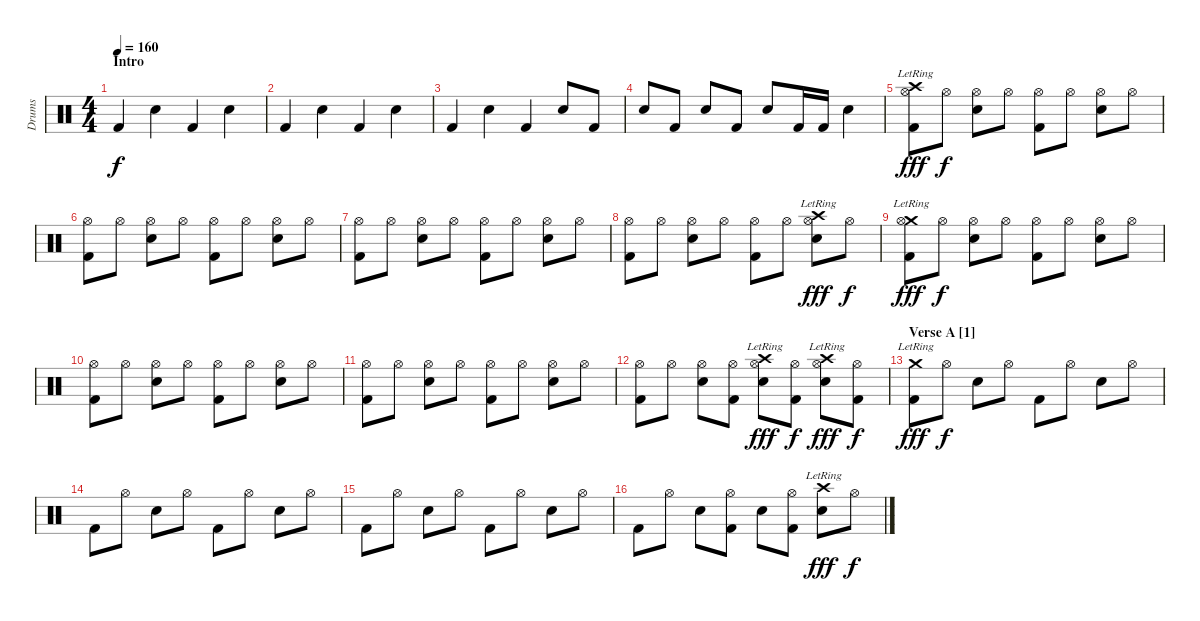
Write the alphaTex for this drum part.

\track ("Drums" "Drums") {instrument percussion}
\staff {score}
\articulation defaults
\ts (4 4)
\section ("" "Intro")
\tempo 160
\clef neutral
\ks c "Kick (hit) 2".4{dy f} "Electric Snare (hit)".4 "Kick (hit) 2".4 "Electric Snare (hit)".4
|
"Kick (hit) 2".4 "Electric Snare (hit)".4 "Kick (hit) 2".4 "Electric Snare (hit)".4 |
"Kick (hit) 2".4 "Electric Snare (hit)".4 "Kick (hit) 2".4 "Electric Snare (hit)".8 "Kick (hit) 2".8 |
"Electric Snare (hit)".8 "Kick (hit) 2".8 "Electric Snare (hit)".8 "Kick (hit) 2".8 "Electric Snare (hit)".8 "Kick (hit) 2".16 "Kick (hit) 2".16 "Electric Snare (hit)".4 |
("Crash high (hit)"{lr} "Hi-Hat (open)" "Kick (hit) 2").8{dy fff} "Hi-Hat (open)".8{dy f} ("Hi-Hat (open)" "Electric Snare (hit)").8 "Hi-Hat (open)".8 ("Hi-Hat (open)" "Kick (hit) 2").8 "Hi-Hat (open)".8 ("Hi-Hat (open)" "Electric Snare (hit)").8 "Hi-Hat (open)".8 |
("Hi-Hat (open)" "Kick (hit) 2").8 "Hi-Hat (open)".8 ("Hi-Hat (open)" "Electric Snare (hit)").8 "Hi-Hat (open)".8 ("Hi-Hat (open)" "Kick (hit) 2").8 "Hi-Hat (open)".8 ("Hi-Hat (open)" "Electric Snare (hit)").8 "Hi-Hat (open)".8 |
("Hi-Hat (open)" "Kick (hit) 2").8 "Hi-Hat (open)".8 ("Hi-Hat (open)" "Electric Snare (hit)").8 "Hi-Hat (open)".8 ("Hi-Hat (open)" "Kick (hit) 2").8 "Hi-Hat (open)".8 ("Hi-Hat (open)" "Electric Snare (hit)").8 "Hi-Hat (open)".8 |
("Hi-Hat (open)" "Kick (hit) 2").8 "Hi-Hat (open)".8 ("Hi-Hat (open)" "Electric Snare (hit)").8 "Hi-Hat (open)".8 ("Hi-Hat (open)" "Kick (hit) 2").8 "Hi-Hat (open)".8 ("Crash high (hit)"{lr} "Hi-Hat (open)" "Electric Snare (hit)").8{dy fff} "Hi-Hat (open)".8{dy f} |
("Crash medium (hit)"{lr} "Hi-Hat (open)" "Kick (hit) 2").8{dy fff} "Hi-Hat (open)".8{dy f} ("Hi-Hat (open)" "Electric Snare (hit)").8 "Hi-Hat (open)".8 ("Hi-Hat (open)" "Kick (hit) 2").8 "Hi-Hat (open)".8 ("Hi-Hat (open)" "Electric Snare (hit)").8 "Hi-Hat (open)".8 |
("Hi-Hat (open)" "Kick (hit) 2").8 "Hi-Hat (open)".8 ("Hi-Hat (open)" "Electric Snare (hit)").8 "Hi-Hat (open)".8 ("Hi-Hat (open)" "Kick (hit) 2").8 "Hi-Hat (open)".8 ("Hi-Hat (open)" "Electric Snare (hit)").8 "Hi-Hat (open)".8 |
("Hi-Hat (open)" "Kick (hit) 2").8 "Hi-Hat (open)".8 ("Hi-Hat (open)" "Electric Snare (hit)").8 "Hi-Hat (open)".8 ("Hi-Hat (open)" "Kick (hit) 2").8 "Hi-Hat (open)".8 ("Hi-Hat (open)" "Electric Snare (hit)").8 "Hi-Hat (open)".8 |
("Hi-Hat (open)" "Kick (hit) 2").8 "Hi-Hat (open)".8 ("Hi-Hat (open)" "Electric Snare (hit)").8 ("Hi-Hat (open)" "Kick (hit) 2").8 ("Crash high (hit)"{lr} "Hi-Hat (open)" "Electric Snare (hit)").8{dy fff} ("Hi-Hat (open)" "Kick (hit) 2").8{dy f} ("Crash high (hit)"{lr} "Hi-Hat (open)" "Electric Snare (hit)").8{dy fff} ("Hi-Hat (open)" "Kick (hit) 2").8{dy f} |
\section ("" "Verse A [1]")
("Crash medium (hit)"{lr} "Kick (hit) 2").8{dy fff} "Hi-Hat (open)".8{dy f} "Electric Snare (hit)".8 "Hi-Hat (open)".8 "Kick (hit) 2".8 "Hi-Hat (open)".8 "Electric Snare (hit)".8 "Hi-Hat (open)".8 |
"Kick (hit) 2".8 "Hi-Hat (open)".8 "Electric Snare (hit)".8 "Hi-Hat (open)".8 "Kick (hit) 2".8 "Hi-Hat (open)".8 "Electric Snare (hit)".8 "Hi-Hat (open)".8 |
"Kick (hit) 2".8 "Hi-Hat (open)".8 "Electric Snare (hit)".8 "Hi-Hat (open)".8 "Kick (hit) 2".8 "Hi-Hat (open)".8 "Electric Snare (hit)".8 "Hi-Hat (open)".8 |
"Kick (hit) 2".8 "Hi-Hat (open)".8 "Electric Snare (hit)".8 ("Hi-Hat (open)" "Kick (hit) 2").8 "Electric Snare (hit)".8 ("Hi-Hat (open)" "Kick (hit) 2").8 ("Crash high (hit)"{lr} "Electric Snare (hit)").8{dy fff} "Hi-Hat (open)".8{dy f}
